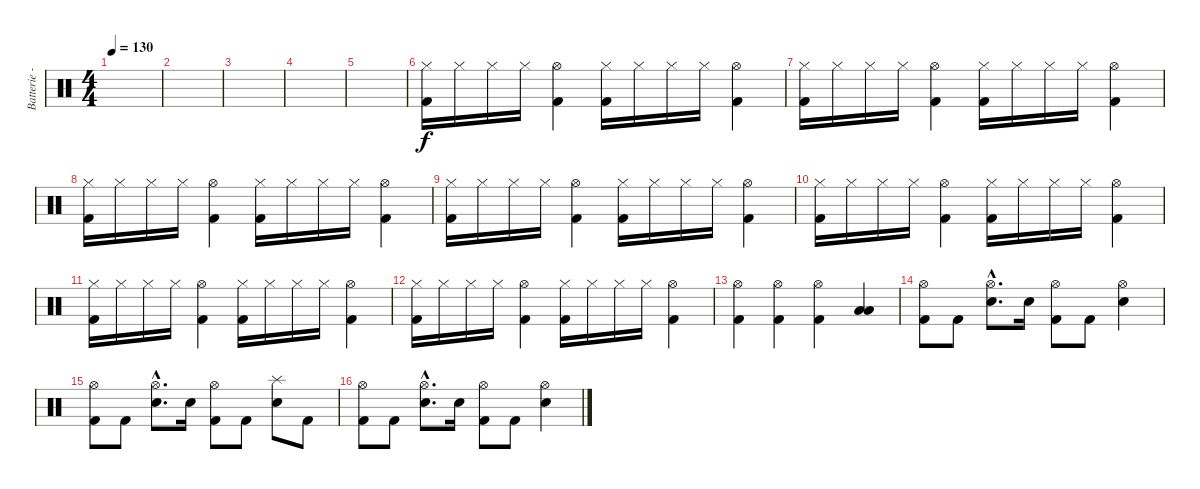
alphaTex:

\track ("Batterie - Anton" "Batterie -") {instrument percussion}
\staff {score}
\articulation defaults
\ts (4 4)
\tempo 130
\clef neutral
\ks c
|
|
|
|
|
("Hi-Hat (closed)" "Kick (hit) 2").16 "Hi-Hat (closed)".16 "Hi-Hat (closed)".16 "Hi-Hat (closed)".16 ("Hi-Hat (open)" "Kick (hit) 2").4 ("Hi-Hat (closed)" "Kick (hit) 2").16 "Hi-Hat (closed)".16 "Hi-Hat (closed)".16 "Hi-Hat (closed)".16 ("Hi-Hat (open)" "Kick (hit) 2").4 |
("Hi-Hat (closed)" "Kick (hit) 2").16 "Hi-Hat (closed)".16 "Hi-Hat (closed)".16 "Hi-Hat (closed)".16 ("Hi-Hat (open)" "Kick (hit) 2").4 ("Hi-Hat (closed)" "Kick (hit) 2").16 "Hi-Hat (closed)".16 "Hi-Hat (closed)".16 "Hi-Hat (closed)".16 ("Hi-Hat (open)" "Kick (hit) 2").4 |
("Hi-Hat (closed)" "Kick (hit) 2").16 "Hi-Hat (closed)".16 "Hi-Hat (closed)".16 "Hi-Hat (closed)".16 ("Hi-Hat (open)" "Kick (hit) 2").4 ("Hi-Hat (closed)" "Kick (hit) 2").16 "Hi-Hat (closed)".16 "Hi-Hat (closed)".16 "Hi-Hat (closed)".16 ("Hi-Hat (open)" "Kick (hit) 2").4 |
("Hi-Hat (closed)" "Kick (hit) 2").16 "Hi-Hat (closed)".16 "Hi-Hat (closed)".16 "Hi-Hat (closed)".16 ("Hi-Hat (open)" "Kick (hit) 2").4 ("Hi-Hat (closed)" "Kick (hit) 2").16 "Hi-Hat (closed)".16 "Hi-Hat (closed)".16 "Hi-Hat (closed)".16 ("Hi-Hat (open)" "Kick (hit) 2").4 |
("Hi-Hat (closed)" "Kick (hit) 2").16 "Hi-Hat (closed)".16 "Hi-Hat (closed)".16 "Hi-Hat (closed)".16 ("Hi-Hat (open)" "Kick (hit) 2").4 ("Hi-Hat (closed)" "Kick (hit) 2").16 "Hi-Hat (closed)".16 "Hi-Hat (closed)".16 "Hi-Hat (closed)".16 ("Hi-Hat (open)" "Kick (hit) 2").4 |
("Hi-Hat (closed)" "Kick (hit) 2").16 "Hi-Hat (closed)".16 "Hi-Hat (closed)".16 "Hi-Hat (closed)".16 ("Hi-Hat (open)" "Kick (hit) 2").4 ("Hi-Hat (closed)" "Kick (hit) 2").16 "Hi-Hat (closed)".16 "Hi-Hat (closed)".16 "Hi-Hat (closed)".16 ("Hi-Hat (open)" "Kick (hit) 2").4 |
("Hi-Hat (closed)" "Kick (hit) 2").16 "Hi-Hat (closed)".16 "Hi-Hat (closed)".16 "Hi-Hat (closed)".16 ("Hi-Hat (open)" "Kick (hit) 2").4 ("Hi-Hat (closed)" "Kick (hit) 2").16 "Hi-Hat (closed)".16 "Hi-Hat (closed)".16 "Hi-Hat (closed)".16 ("Hi-Hat (open)" "Kick (hit) 2").4 |
("Hi-Hat (open)" "Kick (hit) 2").4 ("Hi-Hat (open)" "Kick (hit) 2").4 ("Hi-Hat (open)" "Kick (hit) 2").4 ("Low Floor Tom (hit)" "Low Floor Tom (hit)").4 |
("Hi-Hat (open)" "Kick (hit) 2").8 "Kick (hit) 2".8 ("Hi-Hat (open)"{hac} "Electric Snare (hit)"{hac}).8{d} "Electric Snare (hit)".16 ("Hi-Hat (open)" "Kick (hit) 2").8 "Kick (hit) 2".8 ("Hi-Hat (open)" "Electric Snare (hit)").4 |
("Hi-Hat (open)" "Kick (hit) 2").8 "Kick (hit) 2".8 ("Hi-Hat (open)"{hac} "Electric Snare (hit)"{hac}).8{d} "Electric Snare (hit)".16 ("Hi-Hat (open)" "Kick (hit) 2").8 "Kick (hit) 2".8 ("Splash (hit)" "Electric Snare (hit)").8 "Kick (hit) 2".8 |
("Hi-Hat (open)" "Kick (hit) 2").8 "Kick (hit) 2".8 ("Hi-Hat (open)"{hac} "Electric Snare (hit)"{hac}).8{d} "Electric Snare (hit)".16 ("Hi-Hat (open)" "Kick (hit) 2").8 "Kick (hit) 2".8 ("Hi-Hat (open)" "Electric Snare (hit)").4
